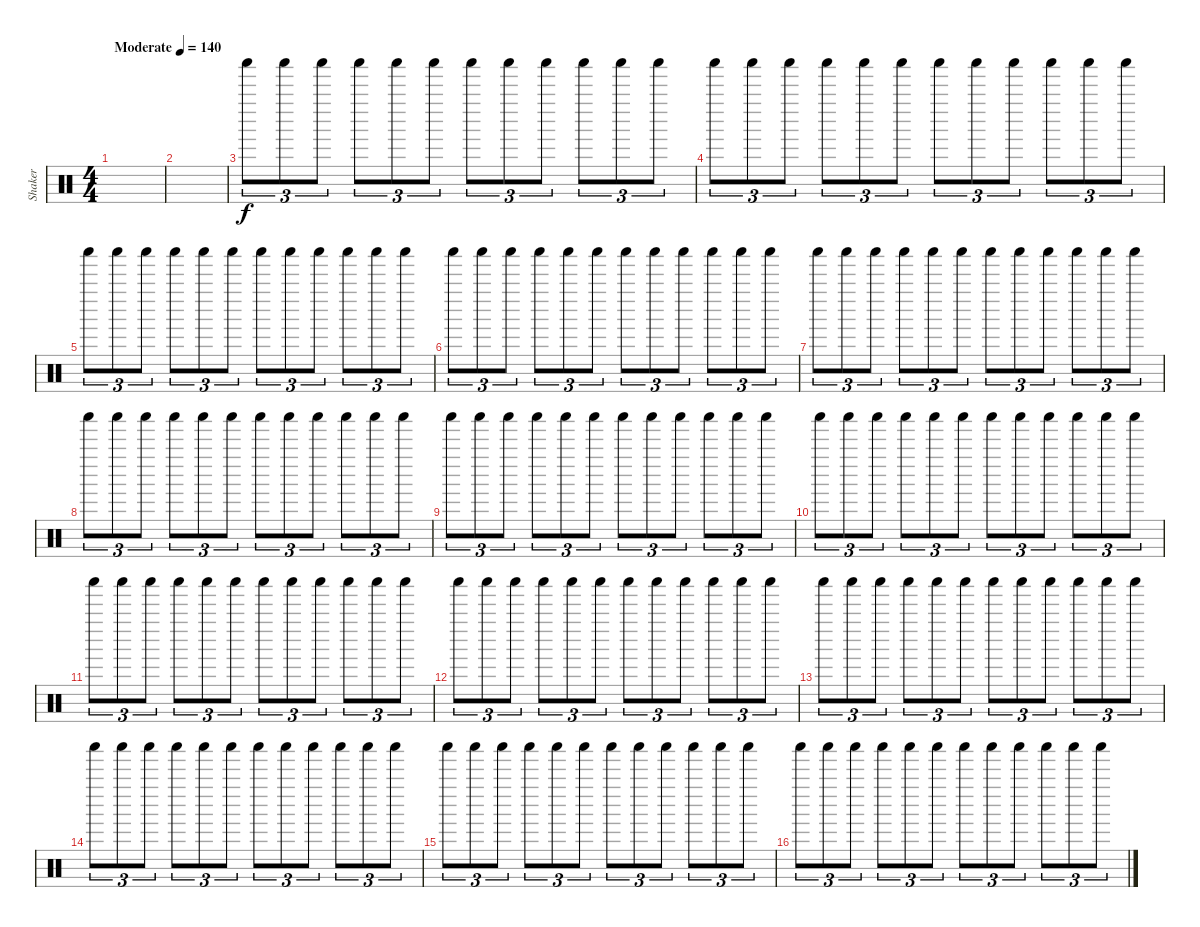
\track ("Shaker" "Shaker") {instrument percussion}
\staff {score}
\articulation defaults
\ts (4 4)
\tempo (140 "Moderate")
\clef neutral
\ks c
|
|
"Shaker (hit)".8{tu (3 2)} "Shaker (hit)".8{tu (3 2)} "Shaker (hit)".8{tu (3 2)} "Shaker (hit)".8{tu (3 2)} "Shaker (hit)".8{tu (3 2)} "Shaker (hit)".8{tu (3 2)} "Shaker (hit)".8{tu (3 2)} "Shaker (hit)".8{tu (3 2)} "Shaker (hit)".8{tu (3 2)} "Shaker (hit)".8{tu (3 2)} "Shaker (hit)".8{tu (3 2)} "Shaker (hit)".8{tu (3 2)} |
"Shaker (hit)".8{tu (3 2)} "Shaker (hit)".8{tu (3 2)} "Shaker (hit)".8{tu (3 2)} "Shaker (hit)".8{tu (3 2)} "Shaker (hit)".8{tu (3 2)} "Shaker (hit)".8{tu (3 2)} "Shaker (hit)".8{tu (3 2)} "Shaker (hit)".8{tu (3 2)} "Shaker (hit)".8{tu (3 2)} "Shaker (hit)".8{tu (3 2)} "Shaker (hit)".8{tu (3 2)} "Shaker (hit)".8{tu (3 2)} |
"Shaker (hit)".8{tu (3 2)} "Shaker (hit)".8{tu (3 2)} "Shaker (hit)".8{tu (3 2)} "Shaker (hit)".8{tu (3 2)} "Shaker (hit)".8{tu (3 2)} "Shaker (hit)".8{tu (3 2)} "Shaker (hit)".8{tu (3 2)} "Shaker (hit)".8{tu (3 2)} "Shaker (hit)".8{tu (3 2)} "Shaker (hit)".8{tu (3 2)} "Shaker (hit)".8{tu (3 2)} "Shaker (hit)".8{tu (3 2)} |
"Shaker (hit)".8{tu (3 2)} "Shaker (hit)".8{tu (3 2)} "Shaker (hit)".8{tu (3 2)} "Shaker (hit)".8{tu (3 2)} "Shaker (hit)".8{tu (3 2)} "Shaker (hit)".8{tu (3 2)} "Shaker (hit)".8{tu (3 2)} "Shaker (hit)".8{tu (3 2)} "Shaker (hit)".8{tu (3 2)} "Shaker (hit)".8{tu (3 2)} "Shaker (hit)".8{tu (3 2)} "Shaker (hit)".8{tu (3 2)} |
"Shaker (hit)".8{tu (3 2)} "Shaker (hit)".8{tu (3 2)} "Shaker (hit)".8{tu (3 2)} "Shaker (hit)".8{tu (3 2)} "Shaker (hit)".8{tu (3 2)} "Shaker (hit)".8{tu (3 2)} "Shaker (hit)".8{tu (3 2)} "Shaker (hit)".8{tu (3 2)} "Shaker (hit)".8{tu (3 2)} "Shaker (hit)".8{tu (3 2)} "Shaker (hit)".8{tu (3 2)} "Shaker (hit)".8{tu (3 2)} |
"Shaker (hit)".8{tu (3 2)} "Shaker (hit)".8{tu (3 2)} "Shaker (hit)".8{tu (3 2)} "Shaker (hit)".8{tu (3 2)} "Shaker (hit)".8{tu (3 2)} "Shaker (hit)".8{tu (3 2)} "Shaker (hit)".8{tu (3 2)} "Shaker (hit)".8{tu (3 2)} "Shaker (hit)".8{tu (3 2)} "Shaker (hit)".8{tu (3 2)} "Shaker (hit)".8{tu (3 2)} "Shaker (hit)".8{tu (3 2)} |
"Shaker (hit)".8{tu (3 2)} "Shaker (hit)".8{tu (3 2)} "Shaker (hit)".8{tu (3 2)} "Shaker (hit)".8{tu (3 2)} "Shaker (hit)".8{tu (3 2)} "Shaker (hit)".8{tu (3 2)} "Shaker (hit)".8{tu (3 2)} "Shaker (hit)".8{tu (3 2)} "Shaker (hit)".8{tu (3 2)} "Shaker (hit)".8{tu (3 2)} "Shaker (hit)".8{tu (3 2)} "Shaker (hit)".8{tu (3 2)} |
"Shaker (hit)".8{tu (3 2)} "Shaker (hit)".8{tu (3 2)} "Shaker (hit)".8{tu (3 2)} "Shaker (hit)".8{tu (3 2)} "Shaker (hit)".8{tu (3 2)} "Shaker (hit)".8{tu (3 2)} "Shaker (hit)".8{tu (3 2)} "Shaker (hit)".8{tu (3 2)} "Shaker (hit)".8{tu (3 2)} "Shaker (hit)".8{tu (3 2)} "Shaker (hit)".8{tu (3 2)} "Shaker (hit)".8{tu (3 2)} |
"Shaker (hit)".8{tu (3 2)} "Shaker (hit)".8{tu (3 2)} "Shaker (hit)".8{tu (3 2)} "Shaker (hit)".8{tu (3 2)} "Shaker (hit)".8{tu (3 2)} "Shaker (hit)".8{tu (3 2)} "Shaker (hit)".8{tu (3 2)} "Shaker (hit)".8{tu (3 2)} "Shaker (hit)".8{tu (3 2)} "Shaker (hit)".8{tu (3 2)} "Shaker (hit)".8{tu (3 2)} "Shaker (hit)".8{tu (3 2)} |
"Shaker (hit)".8{tu (3 2)} "Shaker (hit)".8{tu (3 2)} "Shaker (hit)".8{tu (3 2)} "Shaker (hit)".8{tu (3 2)} "Shaker (hit)".8{tu (3 2)} "Shaker (hit)".8{tu (3 2)} "Shaker (hit)".8{tu (3 2)} "Shaker (hit)".8{tu (3 2)} "Shaker (hit)".8{tu (3 2)} "Shaker (hit)".8{tu (3 2)} "Shaker (hit)".8{tu (3 2)} "Shaker (hit)".8{tu (3 2)} |
"Shaker (hit)".8{tu (3 2)} "Shaker (hit)".8{tu (3 2)} "Shaker (hit)".8{tu (3 2)} "Shaker (hit)".8{tu (3 2)} "Shaker (hit)".8{tu (3 2)} "Shaker (hit)".8{tu (3 2)} "Shaker (hit)".8{tu (3 2)} "Shaker (hit)".8{tu (3 2)} "Shaker (hit)".8{tu (3 2)} "Shaker (hit)".8{tu (3 2)} "Shaker (hit)".8{tu (3 2)} "Shaker (hit)".8{tu (3 2)} |
"Shaker (hit)".8{tu (3 2)} "Shaker (hit)".8{tu (3 2)} "Shaker (hit)".8{tu (3 2)} "Shaker (hit)".8{tu (3 2)} "Shaker (hit)".8{tu (3 2)} "Shaker (hit)".8{tu (3 2)} "Shaker (hit)".8{tu (3 2)} "Shaker (hit)".8{tu (3 2)} "Shaker (hit)".8{tu (3 2)} "Shaker (hit)".8{tu (3 2)} "Shaker (hit)".8{tu (3 2)} "Shaker (hit)".8{tu (3 2)} |
"Shaker (hit)".8{tu (3 2)} "Shaker (hit)".8{tu (3 2)} "Shaker (hit)".8{tu (3 2)} "Shaker (hit)".8{tu (3 2)} "Shaker (hit)".8{tu (3 2)} "Shaker (hit)".8{tu (3 2)} "Shaker (hit)".8{tu (3 2)} "Shaker (hit)".8{tu (3 2)} "Shaker (hit)".8{tu (3 2)} "Shaker (hit)".8{tu (3 2)} "Shaker (hit)".8{tu (3 2)} "Shaker (hit)".8{tu (3 2)} |
"Shaker (hit)".8{tu (3 2)} "Shaker (hit)".8{tu (3 2)} "Shaker (hit)".8{tu (3 2)} "Shaker (hit)".8{tu (3 2)} "Shaker (hit)".8{tu (3 2)} "Shaker (hit)".8{tu (3 2)} "Shaker (hit)".8{tu (3 2)} "Shaker (hit)".8{tu (3 2)} "Shaker (hit)".8{tu (3 2)} "Shaker (hit)".8{tu (3 2)} "Shaker (hit)".8{tu (3 2)} "Shaker (hit)".8{tu (3 2)}
